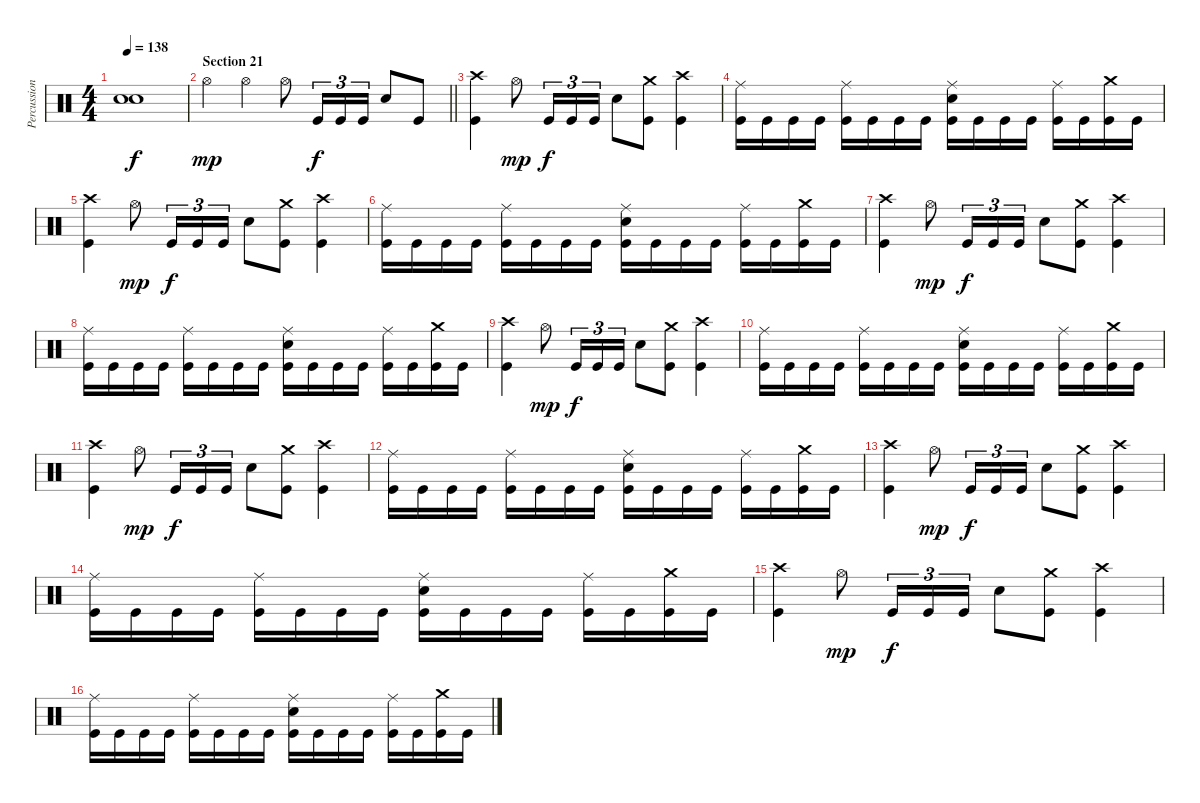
\track ("Percussion" "Percussion") {instrument percussion}
\staff {score}
\articulation defaults
\ts (4 4)
\tempo 138
\clef neutral
\ks c
("Snare (hit)"{t} "Snare (hit)"{t}).1{dy f} |
\section ("" "Section 21")
\barLineRight lightlight "Hi-Hat (open)".4{dy mp} "Hi-Hat (open)".4 "Hi-Hat (open)".8 "Kick (hit)".16{tu (3 2) dy f} "Kick (hit)".16{tu (3 2)} "Kick (hit)".16{tu (3 2)} "Electric Snare (hit)".8 "Kick (hit)".8
|
("Crash high (hit)" "Kick (hit)").4 "Hi-Hat (open)".8{dy mp} "Kick (hit)".16{tu (3 2) dy f} "Kick (hit)".16{tu (3 2)} "Kick (hit)".16{tu (3 2)} "Electric Snare (hit)".8 ("Crash medium (hit)" "Kick (hit)").8 ("Crash high (hit)" "Kick (hit)").4 |
("Ride (middle)" "Kick (hit)").16 "Kick (hit)".16 "Kick (hit)".16 "Kick (hit)".16 ("Ride (middle)" "Kick (hit)").16 "Kick (hit)".16 "Kick (hit)".16 "Kick (hit)".16 ("Ride (middle)" "Electric Snare (hit)" "Kick (hit)").16 "Kick (hit)".16 "Kick (hit)".16 "Kick (hit)".16 ("Ride (middle)" "Kick (hit)").16 "Kick (hit)".16 ("Crash medium (hit)" "Kick (hit)").16 "Kick (hit)".16 |
("Crash high (hit)" "Kick (hit)").4 "Hi-Hat (open)".8{dy mp} "Kick (hit)".16{tu (3 2) dy f} "Kick (hit)".16{tu (3 2)} "Kick (hit)".16{tu (3 2)} "Electric Snare (hit)".8 ("Crash medium (hit)" "Kick (hit)").8 ("Crash high (hit)" "Kick (hit)").4 |
("Ride (middle)" "Kick (hit)").16 "Kick (hit)".16 "Kick (hit)".16 "Kick (hit)".16 ("Ride (middle)" "Kick (hit)").16 "Kick (hit)".16 "Kick (hit)".16 "Kick (hit)".16 ("Ride (middle)" "Electric Snare (hit)" "Kick (hit)").16 "Kick (hit)".16 "Kick (hit)".16 "Kick (hit)".16 ("Ride (middle)" "Kick (hit)").16 "Kick (hit)".16 ("Crash medium (hit)" "Kick (hit)").16 "Kick (hit)".16 |
("Crash high (hit)" "Kick (hit)").4 "Hi-Hat (open)".8{dy mp} "Kick (hit)".16{tu (3 2) dy f} "Kick (hit)".16{tu (3 2)} "Kick (hit)".16{tu (3 2)} "Electric Snare (hit)".8 ("Crash medium (hit)" "Kick (hit)").8 ("Crash high (hit)" "Kick (hit)").4 |
("Ride (middle)" "Kick (hit)").16 "Kick (hit)".16 "Kick (hit)".16 "Kick (hit)".16 ("Ride (middle)" "Kick (hit)").16 "Kick (hit)".16 "Kick (hit)".16 "Kick (hit)".16 ("Ride (middle)" "Electric Snare (hit)" "Kick (hit)").16 "Kick (hit)".16 "Kick (hit)".16 "Kick (hit)".16 ("Ride (middle)" "Kick (hit)").16 "Kick (hit)".16 ("Crash medium (hit)" "Kick (hit)").16 "Kick (hit)".16 |
("Crash high (hit)" "Kick (hit)").4 "Hi-Hat (open)".8{dy mp} "Kick (hit)".16{tu (3 2) dy f} "Kick (hit)".16{tu (3 2)} "Kick (hit)".16{tu (3 2)} "Electric Snare (hit)".8 ("Crash medium (hit)" "Kick (hit)").8 ("Crash high (hit)" "Kick (hit)").4 |
("Ride (middle)" "Kick (hit)").16 "Kick (hit)".16 "Kick (hit)".16 "Kick (hit)".16 ("Ride (middle)" "Kick (hit)").16 "Kick (hit)".16 "Kick (hit)".16 "Kick (hit)".16 ("Ride (middle)" "Electric Snare (hit)" "Kick (hit)").16 "Kick (hit)".16 "Kick (hit)".16 "Kick (hit)".16 ("Ride (middle)" "Kick (hit)").16 "Kick (hit)".16 ("Crash medium (hit)" "Kick (hit)").16 "Kick (hit)".16 |
("Crash high (hit)" "Kick (hit)").4 "Hi-Hat (open)".8{dy mp} "Kick (hit)".16{tu (3 2) dy f} "Kick (hit)".16{tu (3 2)} "Kick (hit)".16{tu (3 2)} "Electric Snare (hit)".8 ("Crash medium (hit)" "Kick (hit)").8 ("Crash high (hit)" "Kick (hit)").4 |
("Ride (middle)" "Kick (hit)").16 "Kick (hit)".16 "Kick (hit)".16 "Kick (hit)".16 ("Ride (middle)" "Kick (hit)").16 "Kick (hit)".16 "Kick (hit)".16 "Kick (hit)".16 ("Ride (middle)" "Electric Snare (hit)" "Kick (hit)").16 "Kick (hit)".16 "Kick (hit)".16 "Kick (hit)".16 ("Ride (middle)" "Kick (hit)").16 "Kick (hit)".16 ("Crash medium (hit)" "Kick (hit)").16 "Kick (hit)".16 |
("Crash high (hit)" "Kick (hit)").4 "Hi-Hat (open)".8{dy mp} "Kick (hit)".16{tu (3 2) dy f} "Kick (hit)".16{tu (3 2)} "Kick (hit)".16{tu (3 2)} "Electric Snare (hit)".8 ("Crash medium (hit)" "Kick (hit)").8 ("Crash high (hit)" "Kick (hit)").4 |
("Ride (middle)" "Kick (hit)").16 "Kick (hit)".16 "Kick (hit)".16 "Kick (hit)".16 ("Ride (middle)" "Kick (hit)").16 "Kick (hit)".16 "Kick (hit)".16 "Kick (hit)".16 ("Ride (middle)" "Electric Snare (hit)" "Kick (hit)").16 "Kick (hit)".16 "Kick (hit)".16 "Kick (hit)".16 ("Ride (middle)" "Kick (hit)").16 "Kick (hit)".16 ("Crash medium (hit)" "Kick (hit)").16 "Kick (hit)".16 |
("Crash high (hit)" "Kick (hit)").4 "Hi-Hat (open)".8{dy mp} "Kick (hit)".16{tu (3 2) dy f} "Kick (hit)".16{tu (3 2)} "Kick (hit)".16{tu (3 2)} "Electric Snare (hit)".8 ("Crash medium (hit)" "Kick (hit)").8 ("Crash high (hit)" "Kick (hit)").4 |
("Ride (middle)" "Kick (hit)").16 "Kick (hit)".16 "Kick (hit)".16 "Kick (hit)".16 ("Ride (middle)" "Kick (hit)").16 "Kick (hit)".16 "Kick (hit)".16 "Kick (hit)".16 ("Ride (middle)" "Electric Snare (hit)" "Kick (hit)").16 "Kick (hit)".16 "Kick (hit)".16 "Kick (hit)".16 ("Ride (middle)" "Kick (hit)").16 "Kick (hit)".16 ("Crash medium (hit)" "Kick (hit)").16 "Kick (hit)".16
